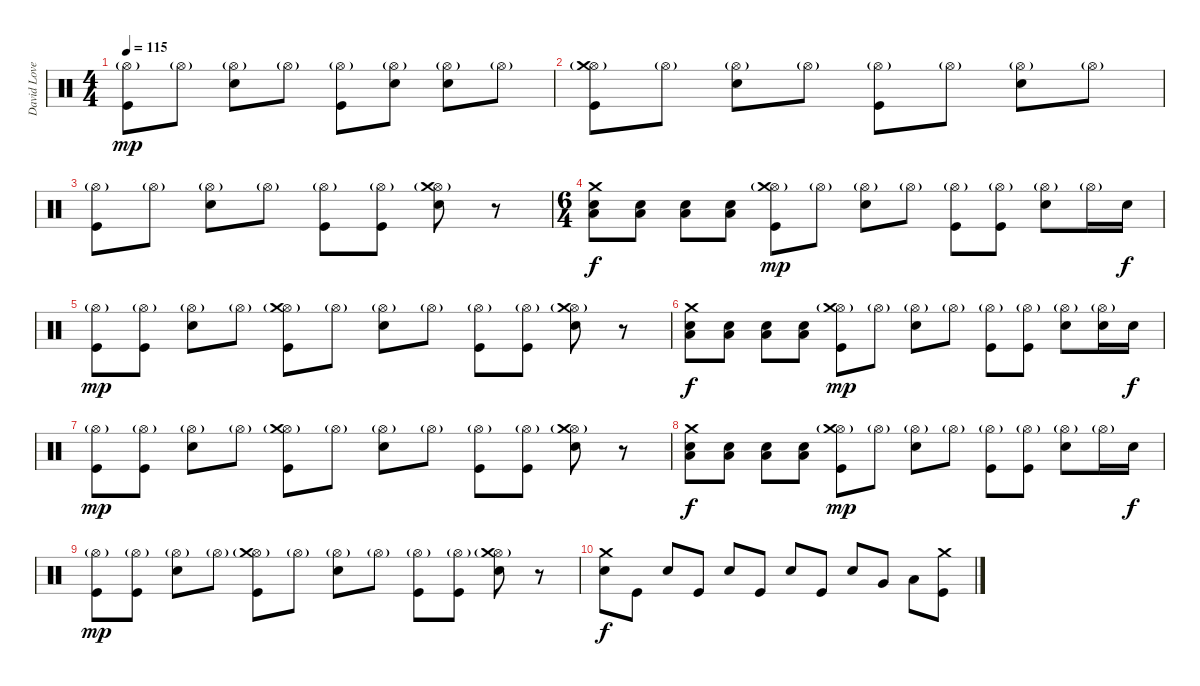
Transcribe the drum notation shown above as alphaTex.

\track ("David Lovering" "David Love") {instrument percussion}
\staff {score}
\articulation defaults
\ts (4 4)
\tempo 115
\clef neutral
\ks c
("Hi-Hat (open)"{g} "Kick (hit)").8{dy mp} "Hi-Hat (open)"{g}.8 ("Hi-Hat (open)"{g} "Snare (hit) 2").8 "Hi-Hat (open)"{g}.8 ("Hi-Hat (open)"{g} "Kick (hit)").8 ("Hi-Hat (open)"{g} "Snare (hit) 2").8 ("Hi-Hat (open)"{g} "Snare (hit) 2").8 "Hi-Hat (open)"{g}.8 |
("Hi-Hat (open)"{g} "Crash medium (hit)" "Kick (hit)").8 "Hi-Hat (open)"{g}.8 ("Hi-Hat (open)"{g} "Snare (hit) 2").8 "Hi-Hat (open)"{g}.8 ("Hi-Hat (open)"{g} "Kick (hit)").8 "Hi-Hat (open)"{g}.8 ("Hi-Hat (open)"{g} "Snare (hit) 2").8 "Hi-Hat (open)"{g}.8 |
("Hi-Hat (open)"{g} "Kick (hit)").8 "Hi-Hat (open)"{g}.8 ("Hi-Hat (open)"{g} "Snare (hit) 2").8 "Hi-Hat (open)"{g}.8 ("Hi-Hat (open)"{g} "Kick (hit)").8 ("Hi-Hat (open)"{g} "Kick (hit)").8 ("Hi-Hat (open)"{g} "Crash medium (hit)" "Snare (hit) 2").8 r.8 |
\ts (6 4)
("Crash medium (hit)" "Snare (hit) 2" "Low Floor Tom (hit)").8{dy f} ("Snare (hit) 2" "Low Floor Tom (hit)").8 ("Snare (hit) 2" "Low Floor Tom (hit)").8 ("Snare (hit) 2" "Low Floor Tom (hit)").8 ("Hi-Hat (open)"{g} "Crash medium (hit)" "Kick (hit)").8{dy mp} "Hi-Hat (open)"{g}.8 ("Hi-Hat (open)"{g} "Snare (hit) 2").8 "Hi-Hat (open)"{g}.8 ("Hi-Hat (open)"{g} "Kick (hit)").8 ("Hi-Hat (open)"{g} "Kick (hit)").8 ("Hi-Hat (open)"{g} "Snare (hit) 2").8 "Hi-Hat (open)"{g}.16 "Snare (hit) 2".16{dy f} |
("Hi-Hat (open)"{g} "Kick (hit)").8{dy mp} ("Hi-Hat (open)"{g} "Kick (hit)").8 ("Hi-Hat (open)"{g} "Snare (hit) 2").8 "Hi-Hat (open)"{g}.8 ("Hi-Hat (open)"{g} "Crash medium (hit)" "Kick (hit)").8 "Hi-Hat (open)"{g}.8 ("Hi-Hat (open)"{g} "Snare (hit) 2").8 "Hi-Hat (open)"{g}.8 ("Hi-Hat (open)"{g} "Kick (hit)").8 ("Hi-Hat (open)"{g} "Kick (hit)").8 ("Hi-Hat (open)"{g} "Crash medium (hit)" "Snare (hit) 2").8 r.8 |
("Crash medium (hit)" "Snare (hit) 2" "Low Floor Tom (hit)").8{dy f} ("Snare (hit) 2" "Low Floor Tom (hit)").8 ("Snare (hit) 2" "Low Floor Tom (hit)").8 ("Snare (hit) 2" "Low Floor Tom (hit)").8 ("Hi-Hat (open)"{g} "Crash medium (hit)" "Kick (hit)").8{dy mp} "Hi-Hat (open)"{g}.8 ("Hi-Hat (open)"{g} "Snare (hit) 2").8 "Hi-Hat (open)"{g}.8 ("Hi-Hat (open)"{g} "Kick (hit)").8 ("Hi-Hat (open)"{g} "Kick (hit)").8 ("Hi-Hat (open)"{g} "Snare (hit) 2").8 ("Hi-Hat (open)"{g} "Snare (hit) 2").16 "Snare (hit) 2".16{dy f} |
("Hi-Hat (open)"{g} "Kick (hit)").8{dy mp} ("Hi-Hat (open)"{g} "Kick (hit)").8 ("Hi-Hat (open)"{g} "Snare (hit) 2").8 "Hi-Hat (open)"{g}.8 ("Hi-Hat (open)"{g} "Crash medium (hit)" "Kick (hit)").8 "Hi-Hat (open)"{g}.8 ("Hi-Hat (open)"{g} "Snare (hit) 2").8 "Hi-Hat (open)"{g}.8 ("Hi-Hat (open)"{g} "Kick (hit)").8 ("Hi-Hat (open)"{g} "Kick (hit)").8 ("Hi-Hat (open)"{g} "Crash medium (hit)" "Snare (hit) 2").8 r.8 |
("Crash medium (hit)" "Snare (hit) 2" "Low Floor Tom (hit)").8{dy f} ("Snare (hit) 2" "Low Floor Tom (hit)").8 ("Snare (hit) 2" "Low Floor Tom (hit)").8 ("Snare (hit) 2" "Low Floor Tom (hit)").8 ("Hi-Hat (open)"{g} "Crash medium (hit)" "Kick (hit)").8{dy mp} "Hi-Hat (open)"{g}.8 ("Hi-Hat (open)"{g} "Snare (hit) 2").8 "Hi-Hat (open)"{g}.8 ("Hi-Hat (open)"{g} "Kick (hit)").8 ("Hi-Hat (open)"{g} "Kick (hit)").8 ("Hi-Hat (open)"{g} "Snare (hit) 2").8 "Hi-Hat (open)"{g}.16 "Snare (hit) 2".16{dy f} |
("Hi-Hat (open)"{g} "Kick (hit)").8{dy mp} ("Hi-Hat (open)"{g} "Kick (hit)").8 ("Hi-Hat (open)"{g} "Snare (hit) 2").8 "Hi-Hat (open)"{g}.8 ("Hi-Hat (open)"{g} "Crash medium (hit)" "Kick (hit)").8 "Hi-Hat (open)"{g}.8 ("Hi-Hat (open)"{g} "Snare (hit) 2").8 "Hi-Hat (open)"{g}.8 ("Hi-Hat (open)"{g} "Kick (hit)").8 ("Hi-Hat (open)"{g} "Kick (hit)").8 ("Hi-Hat (open)"{g} "Crash medium (hit)" "Snare (hit) 2").8 r.8 |
("Crash medium (hit)" "Snare (hit) 2").8{dy f} "Kick (hit)".8 "Snare (hit) 2".8 "Kick (hit)".8 "Snare (hit) 2".8 "Kick (hit)".8 "Snare (hit) 2".8 "Kick (hit)".8 "Snare (hit) 2".8 "Very Low Tom (hit)".8 "Low Floor Tom (hit)".8 ("Crash medium (hit)" "Kick (hit)").8
